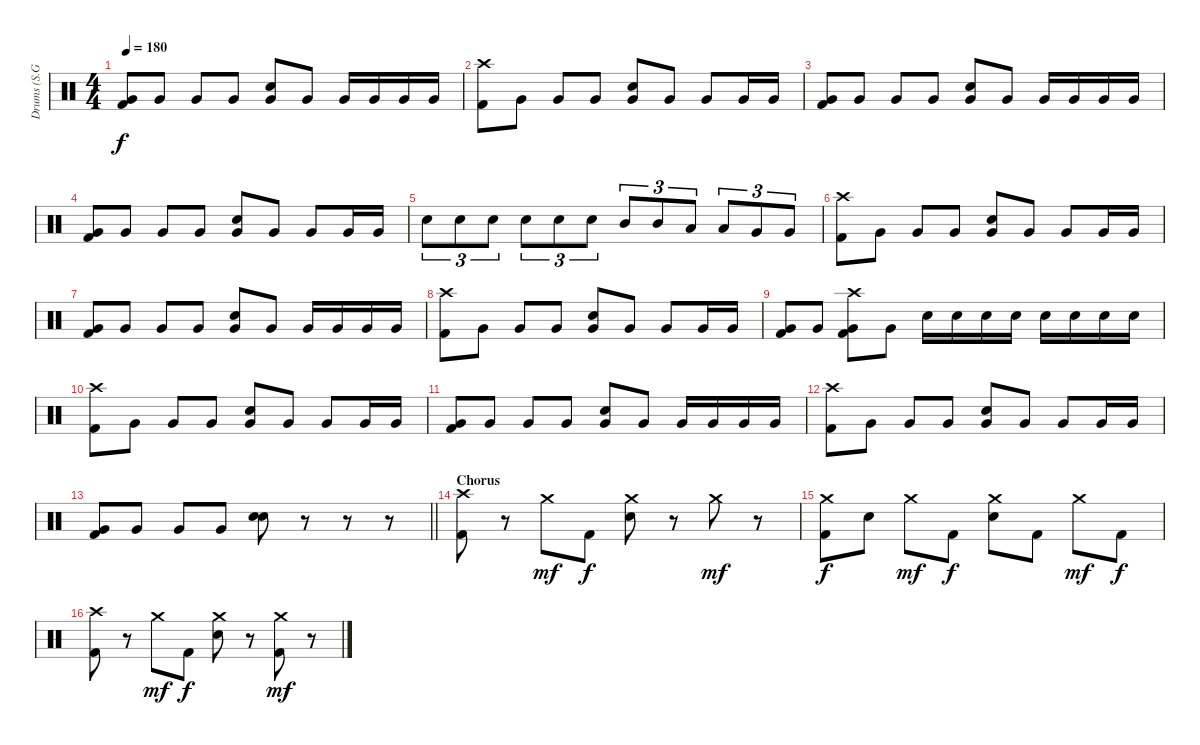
\track ("Drums (S.G. Yim)" "Drums (S.G") {instrument percussion}
\staff {score}
\articulation defaults
\ts (4 4)
\tempo 180
\clef neutral
\ks c
("Very Low Tom (hit)" "Kick (hit) 2").8{dy f} "Very Low Tom (hit)".8 "Very Low Tom (hit)".8 "Very Low Tom (hit)".8 ("Snare (hit) 2" "Very Low Tom (hit)").8 "Very Low Tom (hit)".8 "Very Low Tom (hit)".16 "Very Low Tom (hit)".16 "Very Low Tom (hit)".16 "Very Low Tom (hit)".16 |
("Crash high (hit)" "Kick (hit) 2").8 "Very Low Tom (hit)".8 "Very Low Tom (hit)".8 "Very Low Tom (hit)".8 ("Snare (hit) 2" "Very Low Tom (hit)").8 "Very Low Tom (hit)".8 "Very Low Tom (hit)".8 "Very Low Tom (hit)".16 "Very Low Tom (hit)".16 |
("Very Low Tom (hit)" "Kick (hit) 2").8 "Very Low Tom (hit)".8 "Very Low Tom (hit)".8 "Very Low Tom (hit)".8 ("Snare (hit) 2" "Very Low Tom (hit)").8 "Very Low Tom (hit)".8 "Very Low Tom (hit)".16 "Very Low Tom (hit)".16 "Very Low Tom (hit)".16 "Very Low Tom (hit)".16 |
("Very Low Tom (hit)" "Kick (hit) 2").8 "Very Low Tom (hit)".8 "Very Low Tom (hit)".8 "Very Low Tom (hit)".8 ("Snare (hit) 2" "Very Low Tom (hit)").8 "Very Low Tom (hit)".8 "Very Low Tom (hit)".8 "Very Low Tom (hit)".16 "Very Low Tom (hit)".16 |
"Snare (hit) 2".8{tu (3 2)} "Snare (hit) 2".8{tu (3 2)} "Snare (hit) 2".8{tu (3 2)} "Snare (hit) 2".8{tu (3 2)} "Snare (hit) 2".8{tu (3 2)} "Snare (hit) 2".8{tu (3 2)} "Mid Tom (hit)".8{tu (3 2)} "Mid Tom (hit)".8{tu (3 2)} "Low Tom (hit)".8{tu (3 2)} "Low Tom (hit)".8{tu (3 2)} "Very Low Tom (hit)".8{tu (3 2)} "Very Low Tom (hit)".8{tu (3 2)} |
("Crash high (hit)" "Kick (hit) 2").8 "Very Low Tom (hit)".8 "Very Low Tom (hit)".8 "Very Low Tom (hit)".8 ("Snare (hit) 2" "Very Low Tom (hit)").8 "Very Low Tom (hit)".8 "Very Low Tom (hit)".8 "Very Low Tom (hit)".16 "Very Low Tom (hit)".16 |
("Very Low Tom (hit)" "Kick (hit) 2").8 "Very Low Tom (hit)".8 "Very Low Tom (hit)".8 "Very Low Tom (hit)".8 ("Snare (hit) 2" "Very Low Tom (hit)").8 "Very Low Tom (hit)".8 "Very Low Tom (hit)".16 "Very Low Tom (hit)".16 "Very Low Tom (hit)".16 "Very Low Tom (hit)".16 |
("Crash high (hit)" "Kick (hit) 2").8 "Very Low Tom (hit)".8 "Very Low Tom (hit)".8 "Very Low Tom (hit)".8 ("Snare (hit) 2" "Very Low Tom (hit)").8 "Very Low Tom (hit)".8 "Very Low Tom (hit)".8 "Very Low Tom (hit)".16 "Very Low Tom (hit)".16 |
("Very Low Tom (hit)" "Kick (hit) 2").8 "Very Low Tom (hit)".8 ("Crash high (hit)" "Very Low Tom (hit)" "Kick (hit) 2").8 "Very Low Tom (hit)".8 "Snare (hit) 2".16 "Snare (hit) 2".16 "Snare (hit) 2".16 "Snare (hit) 2".16 "Snare (hit) 2".16 "Snare (hit) 2".16 "Snare (hit) 2".16 "Snare (hit) 2".16 |
("Crash high (hit)" "Kick (hit) 2").8 "Very Low Tom (hit)".8 "Very Low Tom (hit)".8 "Very Low Tom (hit)".8 ("Snare (hit) 2" "Very Low Tom (hit)").8 "Very Low Tom (hit)".8 "Very Low Tom (hit)".8 "Very Low Tom (hit)".16 "Very Low Tom (hit)".16 |
("Very Low Tom (hit)" "Kick (hit) 2").8 "Very Low Tom (hit)".8 "Very Low Tom (hit)".8 "Very Low Tom (hit)".8 ("Snare (hit) 2" "Very Low Tom (hit)").8 "Very Low Tom (hit)".8 "Very Low Tom (hit)".16 "Very Low Tom (hit)".16 "Very Low Tom (hit)".16 "Very Low Tom (hit)".16 |
("Crash high (hit)" "Kick (hit) 2").8 "Very Low Tom (hit)".8 "Very Low Tom (hit)".8 "Very Low Tom (hit)".8 ("Snare (hit) 2" "Very Low Tom (hit)").8 "Very Low Tom (hit)".8 "Very Low Tom (hit)".8 "Very Low Tom (hit)".16 "Very Low Tom (hit)".16 |
\barLineRight lightlight
("Very Low Tom (hit)" "Kick (hit) 2").8 "Very Low Tom (hit)".8 "Very Low Tom (hit)".8 "Very Low Tom (hit)".8 ("Snare (hit) 2" "Snare (hit) 2").8 r.8 r.8 r.8 |
\section ("" "Chorus")
("Crash high (hit)" "Kick (hit) 2").8 r.8 "Crash medium (hit)".8{dy mf} "Kick (hit) 2".8{dy f} ("Crash medium (hit)" "Snare (hit) 2").8 r.8 "Crash medium (hit)".8{dy mf} r.8 |
("Crash medium (hit)" "Kick (hit) 2").8{dy f} "Snare (hit) 2".8 "Crash medium (hit)".8{dy mf} "Kick (hit) 2".8{dy f} ("Crash medium (hit)" "Snare (hit) 2").8 "Kick (hit) 2".8 "Crash medium (hit)".8{dy mf} "Kick (hit) 2".8{dy f} |
("Crash high (hit)" "Kick (hit) 2").8 r.8 "Crash medium (hit)".8{dy mf} "Kick (hit) 2".8{dy f} ("Crash medium (hit)" "Snare (hit) 2").8 r.8 ("Crash medium (hit)" "Kick (hit) 2").8{dy mf} r.8
